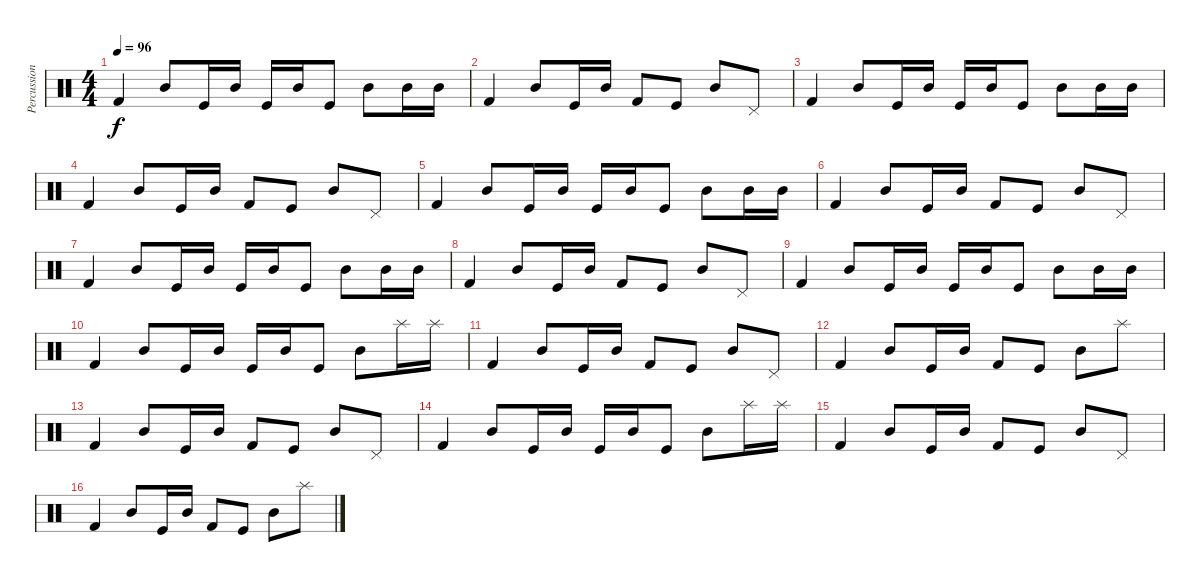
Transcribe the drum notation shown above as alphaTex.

\track ("Percussions" "Percussion") {instrument percussion}
\staff {score}
\articulation defaults
\ts (4 4)
\tempo 96
\clef neutral
\ks c "Kick (hit) 2".4{dy f} "Mid Tom (hit)".8 "Kick (hit)".16 "Mid Tom (hit)".16 "Kick (hit)".16 "Mid Tom (hit)".16 "Kick (hit)".8 "Mid Tom (hit)".8 "Mid Tom (hit)".16 "Mid Tom (hit)".16
|
"Kick (hit) 2".4 "Mid Tom (hit)".8 "Kick (hit)".16 "Mid Tom (hit)".16 "Kick (hit) 2".8 "Kick (hit)".8 "Mid Tom (hit)".8 "Pedal Hi-Hat (hit)".8 |
"Kick (hit) 2".4 "Mid Tom (hit)".8 "Kick (hit)".16 "Mid Tom (hit)".16 "Kick (hit)".16 "Mid Tom (hit)".16 "Kick (hit)".8 "Mid Tom (hit)".8 "Mid Tom (hit)".16 "Mid Tom (hit)".16 |
"Kick (hit) 2".4 "Mid Tom (hit)".8 "Kick (hit)".16 "Mid Tom (hit)".16 "Kick (hit) 2".8 "Kick (hit)".8 "Mid Tom (hit)".8 "Pedal Hi-Hat (hit)".8 |
"Kick (hit) 2".4 "Mid Tom (hit)".8 "Kick (hit)".16 "Mid Tom (hit)".16 "Kick (hit)".16 "Mid Tom (hit)".16 "Kick (hit)".8 "Mid Tom (hit)".8 "Mid Tom (hit)".16 "Mid Tom (hit)".16 |
"Kick (hit) 2".4 "Mid Tom (hit)".8 "Kick (hit)".16 "Mid Tom (hit)".16 "Kick (hit) 2".8 "Kick (hit)".8 "Mid Tom (hit)".8 "Pedal Hi-Hat (hit)".8 |
"Kick (hit) 2".4 "Mid Tom (hit)".8 "Kick (hit)".16 "Mid Tom (hit)".16 "Kick (hit)".16 "Mid Tom (hit)".16 "Kick (hit)".8 "Mid Tom (hit)".8 "Mid Tom (hit)".16 "Mid Tom (hit)".16 |
"Kick (hit) 2".4 "Mid Tom (hit)".8 "Kick (hit)".16 "Mid Tom (hit)".16 "Kick (hit) 2".8 "Kick (hit)".8 "Mid Tom (hit)".8 "Pedal Hi-Hat (hit)".8 |
"Kick (hit) 2".4 "Mid Tom (hit)".8 "Kick (hit)".16 "Mid Tom (hit)".16 "Kick (hit)".16 "Mid Tom (hit)".16 "Kick (hit)".8 "Mid Tom (hit)".8 "Mid Tom (hit)".16 "Mid Tom (hit)".16 |
"Kick (hit) 2".4 "Mid Tom (hit)".8 "Kick (hit)".16 "Mid Tom (hit)".16 "Kick (hit)".16 "Mid Tom (hit)".16 "Kick (hit)".8 "Mid Tom (hit)".8 "Splash (hit)".16 "Splash (hit)".16 |
"Kick (hit) 2".4{volume 16} "Mid Tom (hit)".8 "Kick (hit)".16 "Mid Tom (hit)".16 "Kick (hit) 2".8 "Kick (hit)".8 "Mid Tom (hit)".8 "Pedal Hi-Hat (hit)".8 |
"Kick (hit) 2".4 "Mid Tom (hit)".8 "Kick (hit)".16 "Mid Tom (hit)".16 "Kick (hit) 2".8 "Kick (hit)".8 "Mid Tom (hit)".8 "Splash (hit)".8 |
"Kick (hit) 2".4 "Mid Tom (hit)".8 "Kick (hit)".16 "Mid Tom (hit)".16 "Kick (hit) 2".8 "Kick (hit)".8 "Mid Tom (hit)".8 "Pedal Hi-Hat (hit)".8 |
"Kick (hit) 2".4 "Mid Tom (hit)".8 "Kick (hit)".16 "Mid Tom (hit)".16 "Kick (hit)".16 "Mid Tom (hit)".16 "Kick (hit)".8 "Mid Tom (hit)".8 "Splash (hit)".16 "Splash (hit)".16 |
"Kick (hit) 2".4{volume 16} "Mid Tom (hit)".8 "Kick (hit)".16 "Mid Tom (hit)".16 "Kick (hit) 2".8 "Kick (hit)".8 "Mid Tom (hit)".8 "Pedal Hi-Hat (hit)".8 |
"Kick (hit) 2".4 "Mid Tom (hit)".8 "Kick (hit)".16 "Mid Tom (hit)".16 "Kick (hit) 2".8 "Kick (hit)".8 "Mid Tom (hit)".8 "Splash (hit)".8
